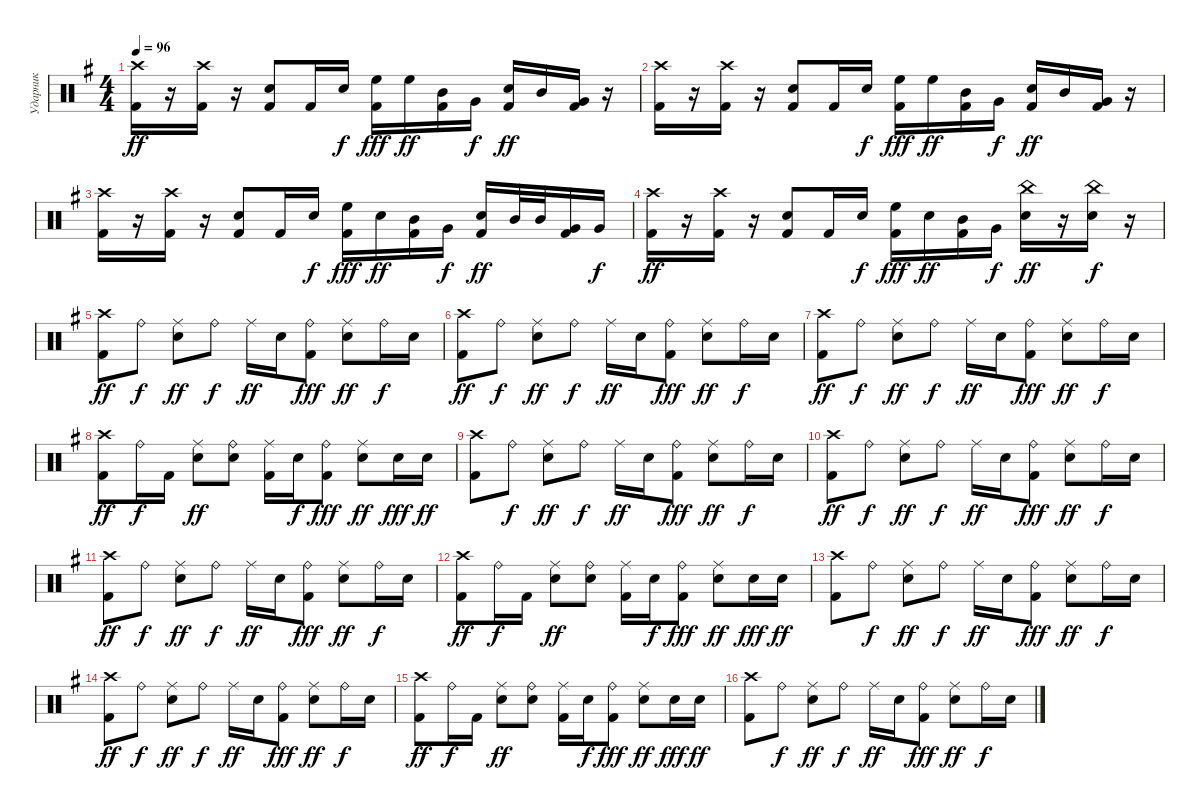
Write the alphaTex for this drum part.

\track ("Ударник" "Ударник") {instrument percussion}
\staff {score}
\articulation defaults
\ts (4 4)
\tempo 96
\clef neutral
\ks eminor
("Kick (hit) 2" "Crash high (hit)").16{dy ff} r.16 ("Kick (hit) 2" "Crash high (hit)").16 r.16 ("Kick (hit) 2" "Snare (hit) 2").8 "Kick (hit) 2".16 "Snare (hit) 2".16{dy f} ("Kick (hit) 2" "High Floor Tom (hit)").16{dy fff} "High Floor Tom (hit)".16{dy ff} ("Kick (hit) 2" "Mid Tom (hit)").16 "Very Low Tom (hit)".16{dy f} ("Kick (hit) 2" "Snare (hit) 2").16{dy ff} "Mid Tom (hit)".16 ("Kick (hit) 2" "Very Low Tom (hit)").16 r.16 |
("Kick (hit) 2" "Crash high (hit)").16 r.16 ("Kick (hit) 2" "Crash high (hit)").16 r.16 ("Kick (hit) 2" "Snare (hit) 2").8 "Kick (hit) 2".16 "Snare (hit) 2".16{dy f} ("Kick (hit) 2" "High Floor Tom (hit)").16{dy fff} "High Floor Tom (hit)".16{dy ff} ("Kick (hit) 2" "Mid Tom (hit)").16 "Very Low Tom (hit)".16{dy f} ("Kick (hit) 2" "Snare (hit) 2").16{dy ff} "Mid Tom (hit)".16 ("Kick (hit) 2" "Very Low Tom (hit)").16 r.16 |
("Kick (hit) 2" "Crash high (hit)").16 r.16 ("Kick (hit) 2" "Crash high (hit)").16 r.16 ("Kick (hit) 2" "Snare (hit) 2").8 "Kick (hit) 2".16 "Snare (hit) 2".16{dy f} ("Kick (hit) 2" "High Floor Tom (hit)").16{dy fff} "Snare (hit) 2".16{dy ff} ("Kick (hit) 2" "Mid Tom (hit)").16 "Very Low Tom (hit)".16{dy f} ("Kick (hit) 2" "Snare (hit) 2").16{dy ff} "Mid Tom (hit)".32 "Mid Tom (hit)".32 ("Kick (hit) 2" "Very Low Tom (hit)").16 "Very Low Tom (hit)".16{dy f} |
("Kick (hit) 2" "Crash high (hit)").16{dy ff} r.16 ("Kick (hit) 2" "Crash high (hit)").16 r.16 ("Kick (hit) 2" "Snare (hit) 2").8 "Kick (hit) 2".16 "Snare (hit) 2".16{dy f} ("Kick (hit) 2" "High Floor Tom (hit)").16{dy fff} "Snare (hit) 2".16{dy ff} ("Kick (hit) 2" "Mid Tom (hit)").16 "Very Low Tom (hit)".16{dy f} ("Snare (hit) 2" "China (hit)").16{dy ff} r.16 ("Snare (hit) 2" "China (hit)").16{dy f} r.16 |
("Kick (hit) 2" "Crash high (hit)").8{dy ff} "Ride (bell)".8{dy f} ("Snare (hit) 2" "Ride (middle)").8{dy ff} "Ride (bell)".8{dy f} "Ride (middle)".16{dy ff} "Snare (hit) 2".16 ("Kick (hit) 2" "Ride (bell)").8{dy fff} ("Snare (hit) 2" "Ride (middle)").8{dy ff} "Ride (bell)".16{dy f} "Snare (hit) 2".16 |
("Kick (hit) 2" "Crash high (hit)").8{dy ff} "Ride (bell)".8{dy f} ("Snare (hit) 2" "Ride (middle)").8{dy ff} "Ride (bell)".8{dy f} "Ride (middle)".16{dy ff} "Snare (hit) 2".16 ("Kick (hit) 2" "Ride (bell)").8{dy fff} ("Snare (hit) 2" "Ride (middle)").8{dy ff} "Ride (bell)".16{dy f} "Snare (hit) 2".16 |
("Kick (hit) 2" "Crash high (hit)").8{dy ff} "Ride (bell)".8{dy f} ("Snare (hit) 2" "Ride (middle)").8{dy ff} "Ride (bell)".8{dy f} "Ride (middle)".16{dy ff} "Snare (hit) 2".16 ("Kick (hit) 2" "Ride (bell)").8{dy fff} ("Snare (hit) 2" "Ride (middle)").8{dy ff} "Ride (bell)".16{dy f} "Snare (hit) 2".16 |
("Kick (hit) 2" "Crash high (hit)").8{dy ff} "Ride (bell)".16{dy f} "Kick (hit) 2".16 ("Snare (hit) 2" "Ride (middle)").8{dy ff} ("Snare (hit) 2" "Ride (bell)").8 ("Kick (hit) 2" "Ride (middle)").16 "Snare (hit) 2".16{dy f} ("Kick (hit) 2" "Ride (bell)").8{dy fff} ("Snare (hit) 2" "Ride (middle)").8{dy ff} "Snare (hit) 2".16{dy fff} "Snare (hit) 2".16{dy ff} |
("Kick (hit) 2" "Crash high (hit)").8 "Ride (bell)".8{dy f} ("Snare (hit) 2" "Ride (middle)").8{dy ff} "Ride (bell)".8{dy f} "Ride (middle)".16{dy ff} "Snare (hit) 2".16 ("Kick (hit) 2" "Ride (bell)").8{dy fff} ("Snare (hit) 2" "Ride (middle)").8{dy ff} "Ride (bell)".16{dy f} "Snare (hit) 2".16 |
("Kick (hit) 2" "Crash high (hit)").8{dy ff} "Ride (bell)".8{dy f} ("Snare (hit) 2" "Ride (middle)").8{dy ff} "Ride (bell)".8{dy f} "Ride (middle)".16{dy ff} "Snare (hit) 2".16 ("Kick (hit) 2" "Ride (bell)").8{dy fff} ("Snare (hit) 2" "Ride (middle)").8{dy ff} "Ride (bell)".16{dy f} "Snare (hit) 2".16 |
("Kick (hit) 2" "Crash high (hit)").8{dy ff} "Ride (bell)".8{dy f} ("Snare (hit) 2" "Ride (middle)").8{dy ff} "Ride (bell)".8{dy f} "Ride (middle)".16{dy ff} "Snare (hit) 2".16 ("Kick (hit) 2" "Ride (bell)").8{dy fff} ("Snare (hit) 2" "Ride (middle)").8{dy ff} "Ride (bell)".16{dy f} "Snare (hit) 2".16 |
("Kick (hit) 2" "Crash high (hit)").8{dy ff} "Ride (bell)".16{dy f} "Kick (hit) 2".16 ("Snare (hit) 2" "Ride (middle)").8{dy ff} ("Snare (hit) 2" "Ride (bell)").8 ("Kick (hit) 2" "Ride (middle)").16 "Snare (hit) 2".16{dy f} ("Kick (hit) 2" "Ride (bell)").8{dy fff} ("Snare (hit) 2" "Ride (middle)").8{dy ff} "Snare (hit) 2".16{dy fff} "Snare (hit) 2".16{dy ff} |
("Kick (hit) 2" "Crash high (hit)").8 "Ride (bell)".8{dy f} ("Snare (hit) 2" "Ride (middle)").8{dy ff} "Ride (bell)".8{dy f} "Ride (middle)".16{dy ff} "Snare (hit) 2".16 ("Kick (hit) 2" "Ride (bell)").8{dy fff} ("Snare (hit) 2" "Ride (middle)").8{dy ff} "Ride (bell)".16{dy f} "Snare (hit) 2".16 |
("Kick (hit) 2" "Crash high (hit)").8{dy ff} "Ride (bell)".8{dy f} ("Snare (hit) 2" "Ride (middle)").8{dy ff} "Ride (bell)".8{dy f} "Ride (middle)".16{dy ff} "Snare (hit) 2".16 ("Kick (hit) 2" "Ride (bell)").8{dy fff} ("Snare (hit) 2" "Ride (middle)").8{dy ff} "Ride (bell)".16{dy f} "Snare (hit) 2".16 |
("Kick (hit) 2" "Crash high (hit)").8{dy ff} "Ride (bell)".16{dy f} "Kick (hit) 2".16 ("Snare (hit) 2" "Ride (middle)").8{dy ff} ("Snare (hit) 2" "Ride (bell)").8 ("Kick (hit) 2" "Ride (middle)").16 "Snare (hit) 2".16{dy f} ("Kick (hit) 2" "Ride (bell)").8{dy fff} ("Snare (hit) 2" "Ride (middle)").8{dy ff} "Snare (hit) 2".16{dy fff} "Snare (hit) 2".16{dy ff} |
("Kick (hit) 2" "Crash high (hit)").8 "Ride (bell)".8{dy f} ("Snare (hit) 2" "Ride (middle)").8{dy ff} "Ride (bell)".8{dy f} "Ride (middle)".16{dy ff} "Snare (hit) 2".16 ("Kick (hit) 2" "Ride (bell)").8{dy fff} ("Snare (hit) 2" "Ride (middle)").8{dy ff} "Ride (bell)".16{dy f} "Snare (hit) 2".16
